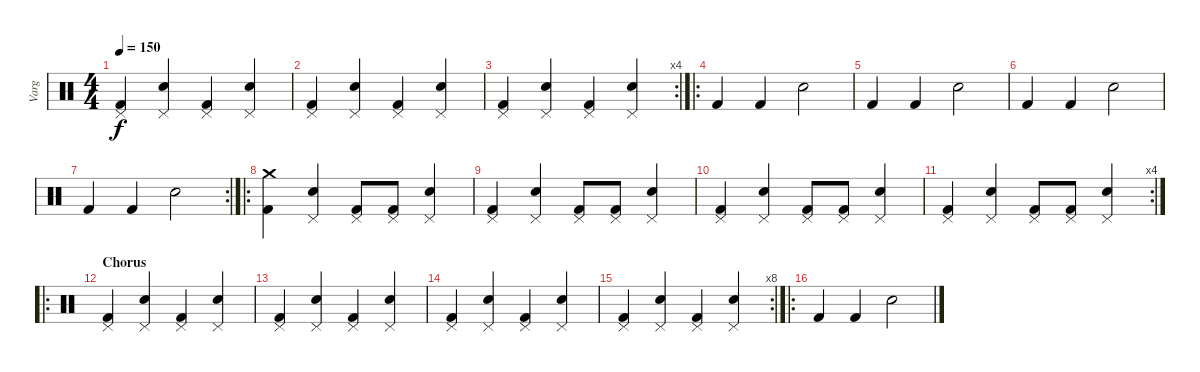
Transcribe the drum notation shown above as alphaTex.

\track ("Varg" "Varg") {instrument percussion}
\staff {score}
\articulation defaults
\ts (4 4)
\tempo 150
\clef neutral
\ks c
("Kick (hit) 2" "Pedal Hi-Hat (hit)").4{dy f} ("Snare (hit) 2" "Pedal Hi-Hat (hit)").4 ("Kick (hit) 2" "Pedal Hi-Hat (hit)").4 ("Snare (hit) 2" "Pedal Hi-Hat (hit)").4 |
("Kick (hit) 2" "Pedal Hi-Hat (hit)").4 ("Snare (hit) 2" "Pedal Hi-Hat (hit)").4 ("Kick (hit) 2" "Pedal Hi-Hat (hit)").4 ("Snare (hit) 2" "Pedal Hi-Hat (hit)").4 |
\rc 4
("Kick (hit) 2" "Pedal Hi-Hat (hit)").4 ("Snare (hit) 2" "Pedal Hi-Hat (hit)").4 ("Kick (hit) 2" "Pedal Hi-Hat (hit)").4 ("Snare (hit) 2" "Pedal Hi-Hat (hit)").4 |
\ro "Kick (hit) 2".4 "Kick (hit) 2".4 "Snare (hit) 2".2
|
"Kick (hit) 2".4 "Kick (hit) 2".4 "Snare (hit) 2".2 |
"Kick (hit) 2".4 "Kick (hit) 2".4 "Snare (hit) 2".2 |
\rc 2 "Kick (hit) 2".4 "Kick (hit) 2".4 "Snare (hit) 2".2
|
\ro
("Crash medium (hit)" "Kick (hit) 2").4 ("Snare (hit) 2" "Pedal Hi-Hat (hit)").4 ("Kick (hit) 2" "Pedal Hi-Hat (hit)").8 ("Kick (hit) 2" "Pedal Hi-Hat (hit)").8 ("Snare (hit) 2" "Pedal Hi-Hat (hit)").4 |
("Pedal Hi-Hat (hit)" "Kick (hit) 2").4 ("Snare (hit) 2" "Pedal Hi-Hat (hit)").4 ("Kick (hit) 2" "Pedal Hi-Hat (hit)").8 ("Kick (hit) 2" "Pedal Hi-Hat (hit)").8 ("Snare (hit) 2" "Pedal Hi-Hat (hit)").4 |
("Pedal Hi-Hat (hit)" "Kick (hit) 2").4 ("Snare (hit) 2" "Pedal Hi-Hat (hit)").4 ("Kick (hit) 2" "Pedal Hi-Hat (hit)").8 ("Kick (hit) 2" "Pedal Hi-Hat (hit)").8 ("Snare (hit) 2" "Pedal Hi-Hat (hit)").4 |
\rc 4
("Pedal Hi-Hat (hit)" "Kick (hit) 2").4 ("Snare (hit) 2" "Pedal Hi-Hat (hit)").4 ("Kick (hit) 2" "Pedal Hi-Hat (hit)").8 ("Kick (hit) 2" "Pedal Hi-Hat (hit)").8 ("Snare (hit) 2" "Pedal Hi-Hat (hit)").4 |
\ro
\section ("" "Chorus")
("Kick (hit) 2" "Pedal Hi-Hat (hit)").4 ("Snare (hit) 2" "Pedal Hi-Hat (hit)").4 ("Kick (hit) 2" "Pedal Hi-Hat (hit)").4 ("Snare (hit) 2" "Pedal Hi-Hat (hit)").4 |
("Kick (hit) 2" "Pedal Hi-Hat (hit)").4 ("Snare (hit) 2" "Pedal Hi-Hat (hit)").4 ("Kick (hit) 2" "Pedal Hi-Hat (hit)").4 ("Snare (hit) 2" "Pedal Hi-Hat (hit)").4 |
("Kick (hit) 2" "Pedal Hi-Hat (hit)").4 ("Snare (hit) 2" "Pedal Hi-Hat (hit)").4 ("Kick (hit) 2" "Pedal Hi-Hat (hit)").4 ("Snare (hit) 2" "Pedal Hi-Hat (hit)").4 |
\rc 8
("Kick (hit) 2" "Pedal Hi-Hat (hit)").4 ("Snare (hit) 2" "Pedal Hi-Hat (hit)").4 ("Kick (hit) 2" "Pedal Hi-Hat (hit)").4 ("Snare (hit) 2" "Pedal Hi-Hat (hit)").4 |
\ro "Kick (hit) 2".4 "Kick (hit) 2".4 "Snare (hit) 2".2
